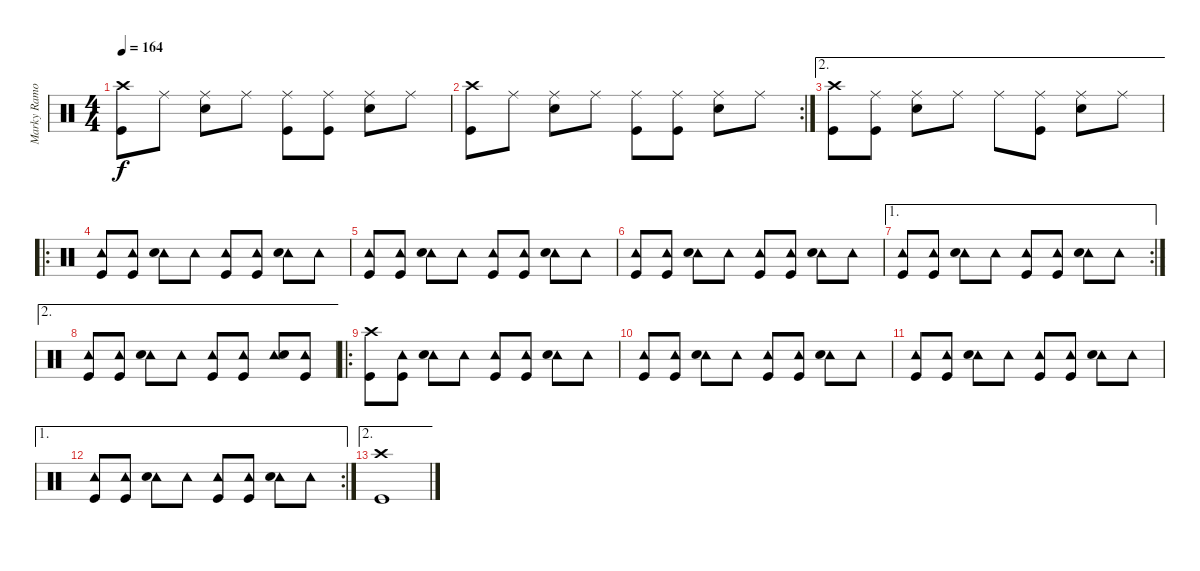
\track ("Marky Ramone (Drums)" "Marky Ramo") {instrument percussion}
\staff {score}
\articulation defaults
\ts (4 4)
\tempo 164
\clef neutral
\ks c
("Crash high (hit)" "Kick (hit)").8{dy f} "Ride (middle)".8 ("Ride (middle)" "Snare (hit) 2").8 "Ride (middle)".8 ("Ride (middle)" "Kick (hit)").8 ("Ride (middle)" "Kick (hit)").8 ("Ride (middle)" "Snare (hit) 2").8 "Ride (middle)".8 |
\rc 2
("Crash high (hit)" "Kick (hit)").8 "Ride (middle)".8 ("Ride (middle)" "Snare (hit) 2").8 "Ride (middle)".8 ("Ride (middle)" "Kick (hit)").8 ("Ride (middle)" "Kick (hit)").8 ("Ride (middle)" "Snare (hit) 2").8 "Ride (middle)".8 |
\ae 2
("Crash high (hit)" "Kick (hit)").8 ("Ride (middle)" "Kick (hit)").8 ("Ride (middle)" "Snare (hit) 2").8 "Ride (middle)".8 "Ride (middle)".8 ("Ride (middle)" "Kick (hit)").8 ("Ride (middle)" "Snare (hit) 2").8 "Ride (middle)".8 |
\ro
("Tambourine (hit)" "Kick (hit)").8 ("Tambourine (hit)" "Kick (hit)").8 ("Tambourine (hit)" "Snare (hit) 2").8 "Tambourine (hit)".8 ("Tambourine (hit)" "Kick (hit)").8 ("Tambourine (hit)" "Kick (hit)").8 ("Tambourine (hit)" "Snare (hit) 2").8 "Tambourine (hit)".8 |
("Tambourine (hit)" "Kick (hit)").8 ("Tambourine (hit)" "Kick (hit)").8 ("Tambourine (hit)" "Snare (hit) 2").8 "Tambourine (hit)".8 ("Tambourine (hit)" "Kick (hit)").8 ("Tambourine (hit)" "Kick (hit)").8 ("Tambourine (hit)" "Snare (hit) 2").8 "Tambourine (hit)".8 |
("Tambourine (hit)" "Kick (hit)").8 ("Tambourine (hit)" "Kick (hit)").8 ("Tambourine (hit)" "Snare (hit) 2").8 "Tambourine (hit)".8 ("Tambourine (hit)" "Kick (hit)").8 ("Tambourine (hit)" "Kick (hit)").8 ("Tambourine (hit)" "Snare (hit) 2").8 "Tambourine (hit)".8 |
\ae 1
\rc 2
("Tambourine (hit)" "Kick (hit)").8 ("Tambourine (hit)" "Kick (hit)").8 ("Tambourine (hit)" "Snare (hit) 2").8 "Tambourine (hit)".8 ("Tambourine (hit)" "Kick (hit)").8 ("Tambourine (hit)" "Kick (hit)").8 ("Tambourine (hit)" "Snare (hit) 2").8 "Tambourine (hit)".8 |
\ae 2
("Tambourine (hit)" "Kick (hit)").8 ("Tambourine (hit)" "Kick (hit)").8 ("Tambourine (hit)" "Snare (hit) 2").8 "Tambourine (hit)".8 ("Tambourine (hit)" "Kick (hit)").8 ("Tambourine (hit)" "Kick (hit)").8 ("Tambourine (hit)" "Snare (hit) 2").8 ("Tambourine (hit)" "Kick (hit)").8 |
\ro
("Crash high (hit)" "Kick (hit)").8 ("Tambourine (hit)" "Kick (hit)").8 ("Tambourine (hit)" "Snare (hit) 2").8 "Tambourine (hit)".8 ("Tambourine (hit)" "Kick (hit)").8 ("Tambourine (hit)" "Kick (hit)").8 ("Tambourine (hit)" "Snare (hit) 2").8 "Tambourine (hit)".8 |
("Tambourine (hit)" "Kick (hit)").8 ("Tambourine (hit)" "Kick (hit)").8 ("Tambourine (hit)" "Snare (hit) 2").8 "Tambourine (hit)".8 ("Tambourine (hit)" "Kick (hit)").8 ("Tambourine (hit)" "Kick (hit)").8 ("Tambourine (hit)" "Snare (hit) 2").8 "Tambourine (hit)".8 |
("Tambourine (hit)" "Kick (hit)").8 ("Tambourine (hit)" "Kick (hit)").8 ("Tambourine (hit)" "Snare (hit) 2").8 "Tambourine (hit)".8 ("Tambourine (hit)" "Kick (hit)").8 ("Tambourine (hit)" "Kick (hit)").8 ("Tambourine (hit)" "Snare (hit) 2").8 "Tambourine (hit)".8 |
\ae 1
\rc 2
("Tambourine (hit)" "Kick (hit)").8 ("Tambourine (hit)" "Kick (hit)").8 ("Tambourine (hit)" "Snare (hit) 2").8 "Tambourine (hit)".8 ("Tambourine (hit)" "Kick (hit)").8 ("Tambourine (hit)" "Kick (hit)").8 ("Tambourine (hit)" "Snare (hit) 2").8 "Tambourine (hit)".8 |
\ae 2
("Crash high (hit)" "Kick (hit)").1
